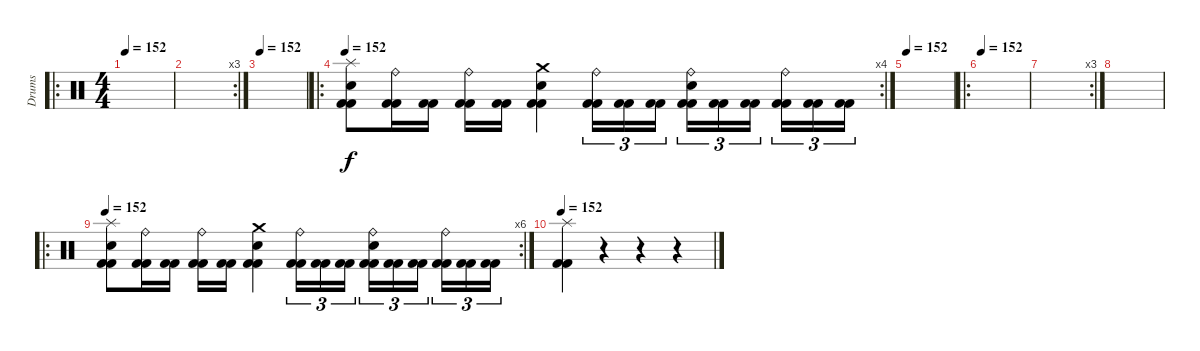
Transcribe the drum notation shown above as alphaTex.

\track ("Drums" "Drums") {instrument percussion}
\staff {score}
\articulation defaults
\ro
\ts (4 4)
\tempo 152
\clef neutral
\ks c
|
\rc 3
|
\tempo 152
|
\ro
\rc 4
\tempo 152
("Splash (hit)" "Electric Snare (hit)" "Kick (hit) 2" "Kick (hit) 2").8 ("Ride (bell)" "Kick (hit) 2" "Kick (hit) 2").16 ("Kick (hit) 2" "Kick (hit) 2").16 ("Ride (bell)" "Kick (hit) 2" "Kick (hit) 2").16 ("Kick (hit) 2" "Kick (hit) 2").16 ("Crash medium (hit)" "Electric Snare (hit)" "Kick (hit) 2" "Kick (hit) 2").4 ("Ride (bell)" "Kick (hit) 2" "Kick (hit) 2").16{tu (3 2)} ("Kick (hit) 2" "Kick (hit) 2").16{tu (3 2)} ("Kick (hit) 2" "Kick (hit) 2").16{tu (3 2)} ("Electric Snare (hit)" "Ride (bell)" "Kick (hit) 2" "Kick (hit) 2").16{tu (3 2)} ("Kick (hit) 2" "Kick (hit) 2").16{tu (3 2)} ("Kick (hit) 2" "Kick (hit) 2").16{tu (3 2)} ("Ride (bell)" "Kick (hit) 2" "Kick (hit) 2").16{tu (3 2)} ("Kick (hit) 2" "Kick (hit) 2").16{tu (3 2)} ("Kick (hit) 2" "Kick (hit) 2").16{tu (3 2)} |
\tempo 152
|
\ro
\tempo 152
|
\rc 3
|
|
\ro
\rc 6
\tempo 152
("Splash (hit)" "Electric Snare (hit)" "Kick (hit) 2" "Kick (hit) 2").8 ("Ride (bell)" "Kick (hit) 2" "Kick (hit) 2").16 ("Kick (hit) 2" "Kick (hit) 2").16 ("Ride (bell)" "Kick (hit) 2" "Kick (hit) 2").16 ("Kick (hit) 2" "Kick (hit) 2").16 ("Crash medium (hit)" "Electric Snare (hit)" "Kick (hit) 2" "Kick (hit) 2").4 ("Ride (bell)" "Kick (hit) 2" "Kick (hit) 2").16{tu (3 2)} ("Kick (hit) 2" "Kick (hit) 2").16{tu (3 2)} ("Kick (hit) 2" "Kick (hit) 2").16{tu (3 2)} ("Electric Snare (hit)" "Ride (bell)" "Kick (hit) 2" "Kick (hit) 2").16{tu (3 2)} ("Kick (hit) 2" "Kick (hit) 2").16{tu (3 2)} ("Kick (hit) 2" "Kick (hit) 2").16{tu (3 2)} ("Ride (bell)" "Kick (hit) 2" "Kick (hit) 2").16{tu (3 2)} ("Kick (hit) 2" "Kick (hit) 2").16{tu (3 2)} ("Kick (hit) 2" "Kick (hit) 2").16{tu (3 2)} |
\tempo 152
("Splash (hit)" "Kick (hit) 2" "Kick (hit) 2").4 r.4 r.4 r.4
